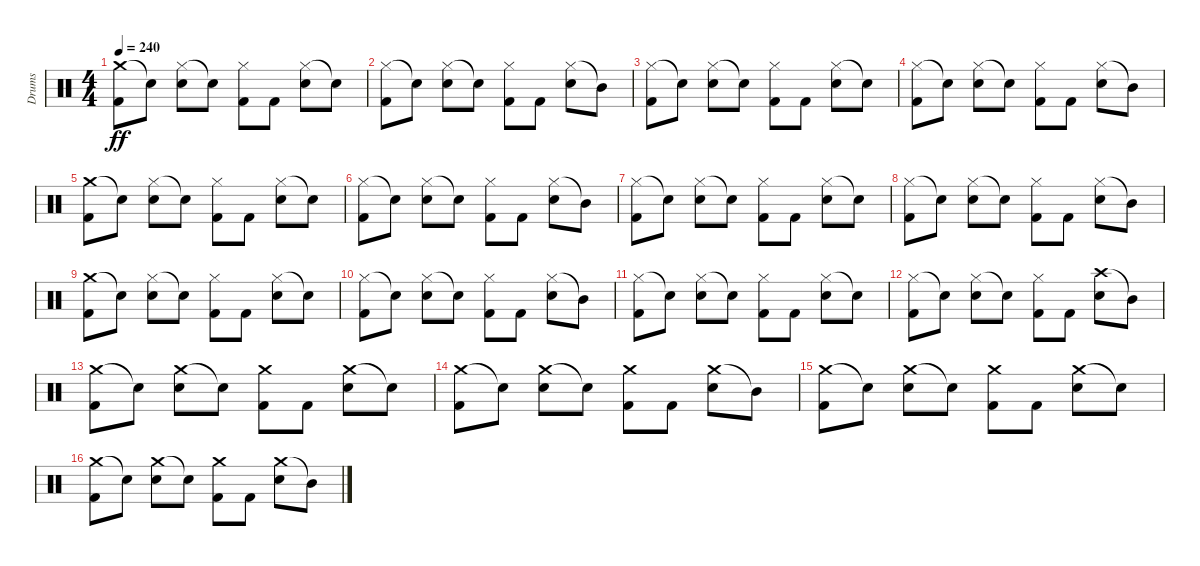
\track ("Drums" "Drums") {instrument percussion}
\staff {score}
\articulation defaults
\ts (4 4)
\tempo 240
\clef neutral
\ks c
("Crash medium (hit)" "Kick (hit) 2").8{dy ff} "Snare (hit)"{t}.8 ("Hi-Hat (closed)" "Electric Snare (hit)").8 "Snare (hit)"{t}.8 ("Hi-Hat (closed)" "Kick (hit) 2").8 "Kick (hit) 2".8 ("Hi-Hat (closed)" "Electric Snare (hit)").8 "Snare (hit)"{t}.8 |
("Hi-Hat (closed)" "Kick (hit) 2").8 "Snare (hit)"{t}.8 ("Hi-Hat (closed)" "Electric Snare (hit)").8 "Snare (hit)"{t}.8 ("Hi-Hat (closed)" "Kick (hit) 2").8 "Kick (hit) 2".8 ("Hi-Hat (closed)" "Electric Snare (hit)").8 "Mid Tom (hit)"{t}.8 |
("Hi-Hat (closed)" "Kick (hit) 2").8 "Snare (hit)"{t}.8 ("Hi-Hat (closed)" "Electric Snare (hit)").8 "Snare (hit)"{t}.8 ("Hi-Hat (closed)" "Kick (hit) 2").8 "Kick (hit) 2".8 ("Hi-Hat (closed)" "Electric Snare (hit)").8 "Snare (hit)"{t}.8 |
("Hi-Hat (closed)" "Kick (hit) 2").8 "Snare (hit)"{t}.8 ("Hi-Hat (closed)" "Electric Snare (hit)").8 "Snare (hit)"{t}.8 ("Hi-Hat (closed)" "Kick (hit) 2").8 "Kick (hit) 2".8 ("Hi-Hat (closed)" "Electric Snare (hit)").8 "Mid Tom (hit)"{t}.8 |
("Crash medium (hit)" "Kick (hit) 2").8 "Snare (hit)"{t}.8 ("Hi-Hat (closed)" "Electric Snare (hit)").8 "Snare (hit)"{t}.8 ("Hi-Hat (closed)" "Kick (hit) 2").8 "Kick (hit) 2".8 ("Hi-Hat (closed)" "Electric Snare (hit)").8 "Snare (hit)"{t}.8 |
("Hi-Hat (closed)" "Kick (hit) 2").8 "Snare (hit)"{t}.8 ("Hi-Hat (closed)" "Electric Snare (hit)").8 "Snare (hit)"{t}.8 ("Hi-Hat (closed)" "Kick (hit) 2").8 "Kick (hit) 2".8 ("Hi-Hat (closed)" "Electric Snare (hit)").8 "Mid Tom (hit)"{t}.8 |
("Hi-Hat (closed)" "Kick (hit) 2").8 "Snare (hit)"{t}.8 ("Hi-Hat (closed)" "Electric Snare (hit)").8 "Snare (hit)"{t}.8 ("Hi-Hat (closed)" "Kick (hit) 2").8 "Kick (hit) 2".8 ("Hi-Hat (closed)" "Electric Snare (hit)").8 "Snare (hit)"{t}.8 |
("Hi-Hat (closed)" "Kick (hit) 2").8 "Snare (hit)"{t}.8 ("Hi-Hat (closed)" "Electric Snare (hit)").8 "Snare (hit)"{t}.8 ("Hi-Hat (closed)" "Kick (hit) 2").8 "Kick (hit) 2".8 ("Hi-Hat (closed)" "Electric Snare (hit)").8 "Mid Tom (hit)"{t}.8 |
("Crash medium (hit)" "Kick (hit) 2").8 "Snare (hit)"{t}.8 ("Hi-Hat (closed)" "Electric Snare (hit)").8 "Snare (hit)"{t}.8 ("Hi-Hat (closed)" "Kick (hit) 2").8 "Kick (hit) 2".8 ("Hi-Hat (closed)" "Electric Snare (hit)").8 "Snare (hit)"{t}.8 |
("Hi-Hat (closed)" "Kick (hit) 2").8 "Snare (hit)"{t}.8 ("Hi-Hat (closed)" "Electric Snare (hit)").8 "Snare (hit)"{t}.8 ("Hi-Hat (closed)" "Kick (hit) 2").8 "Kick (hit) 2".8 ("Hi-Hat (closed)" "Electric Snare (hit)").8 "Mid Tom (hit)"{t}.8 |
("Hi-Hat (closed)" "Kick (hit) 2").8 "Snare (hit)"{t}.8 ("Hi-Hat (closed)" "Electric Snare (hit)").8 "Snare (hit)"{t}.8 ("Hi-Hat (closed)" "Kick (hit) 2").8 "Kick (hit) 2".8 ("Hi-Hat (closed)" "Electric Snare (hit)").8 "Snare (hit)"{t}.8 |
("Hi-Hat (closed)" "Kick (hit) 2").8 "Snare (hit)"{t}.8 ("Hi-Hat (closed)" "Electric Snare (hit)").8 "Snare (hit)"{t}.8 ("Hi-Hat (closed)" "Kick (hit) 2").8 "Kick (hit) 2".8 ("Crash high (hit)" "Electric Snare (hit)").8 "Mid Tom (hit)"{t}.8 |
("Crash medium (hit)" "Kick (hit) 2").8 "Snare (hit)"{t}.8 ("Crash medium (hit)" "Electric Snare (hit)").8 "Snare (hit)"{t}.8 ("Crash medium (hit)" "Kick (hit) 2").8 "Kick (hit) 2".8 ("Crash medium (hit)" "Electric Snare (hit)").8 "Snare (hit)"{t}.8 |
("Crash medium (hit)" "Kick (hit) 2").8 "Snare (hit)"{t}.8 ("Crash medium (hit)" "Electric Snare (hit)").8 "Snare (hit)"{t}.8 ("Crash medium (hit)" "Kick (hit) 2").8 "Kick (hit) 2".8 ("Crash medium (hit)" "Electric Snare (hit)").8 "Mid Tom (hit)"{t}.8 |
("Crash medium (hit)" "Kick (hit) 2").8 "Snare (hit)"{t}.8 ("Crash medium (hit)" "Electric Snare (hit)").8 "Snare (hit)"{t}.8 ("Crash medium (hit)" "Kick (hit) 2").8 "Kick (hit) 2".8 ("Crash medium (hit)" "Electric Snare (hit)").8 "Snare (hit)"{t}.8 |
("Crash medium (hit)" "Kick (hit) 2").8 "Snare (hit)"{t}.8 ("Crash medium (hit)" "Electric Snare (hit)").8 "Snare (hit)"{t}.8 ("Crash medium (hit)" "Kick (hit) 2").8 "Kick (hit) 2".8 ("Crash medium (hit)" "Electric Snare (hit)").8 "Mid Tom (hit)"{t}.8
